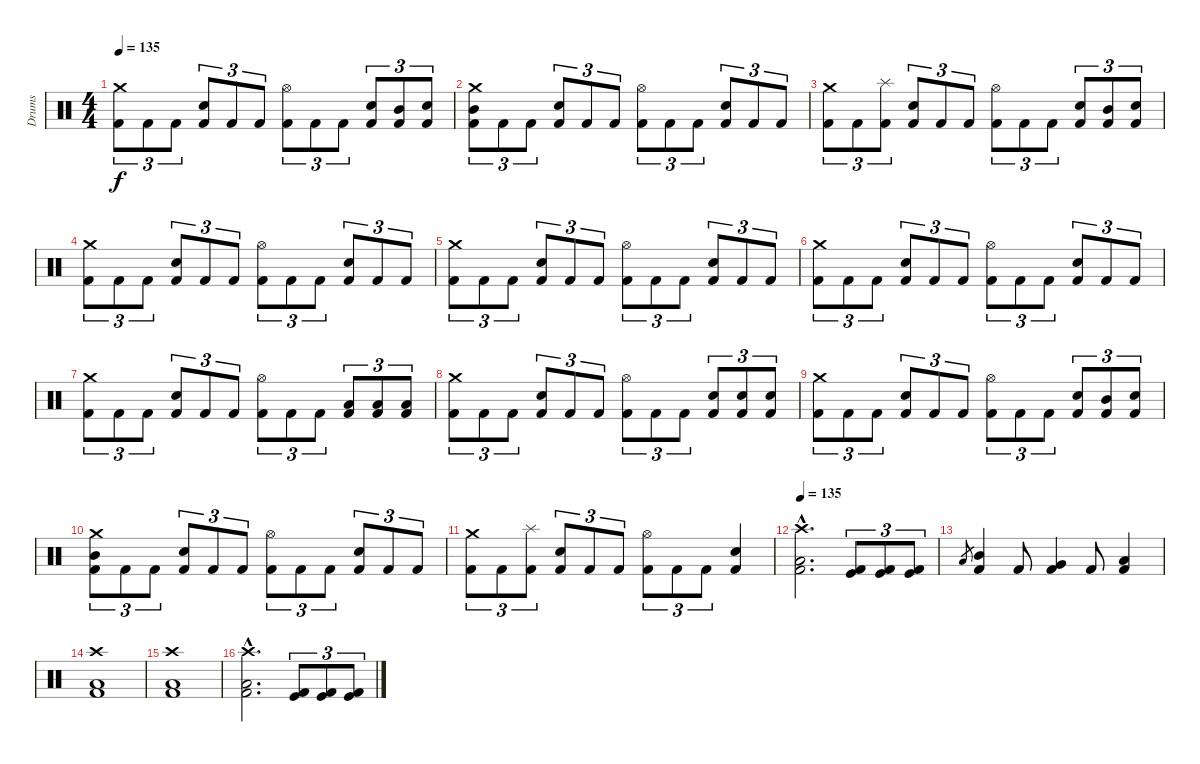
\track ("Drums" "Drums") {instrument percussion}
\staff {score}
\articulation defaults
\ts (4 4)
\tempo 135
\clef neutral
\ks c
("Crash medium (hit)" "Kick (hit) 2").8{tu (3 2) dy f} "Kick (hit) 2".8{tu (3 2)} "Kick (hit) 2".8{tu (3 2)} ("Snare (hit) 2" "Kick (hit) 2").8{tu (3 2)} "Kick (hit) 2".8{tu (3 2)} "Kick (hit) 2".8{tu (3 2)} ("Hi-Hat (open)" "Kick (hit) 2").8{tu (3 2)} "Kick (hit) 2".8{tu (3 2)} "Kick (hit) 2".8{tu (3 2)} ("Snare (hit) 2" "Kick (hit) 2").8{tu (3 2)} ("Mid Tom (hit)" "Kick (hit) 2").8{tu (3 2)} ("Snare (hit) 2" "Kick (hit) 2").8{tu (3 2)} |
("Crash medium (hit)" "Mid Tom (hit)" "Kick (hit) 2").8{tu (3 2)} "Kick (hit) 2".8{tu (3 2)} "Kick (hit) 2".8{tu (3 2)} ("Snare (hit) 2" "Kick (hit) 2").8{tu (3 2)} "Kick (hit) 2".8{tu (3 2)} "Kick (hit) 2".8{tu (3 2)} ("Hi-Hat (open)" "Kick (hit) 2").8{tu (3 2)} "Kick (hit) 2".8{tu (3 2)} "Kick (hit) 2".8{tu (3 2)} ("Snare (hit) 2" "Kick (hit) 2").8{tu (3 2)} "Kick (hit) 2".8{tu (3 2)} "Kick (hit) 2".8{tu (3 2)} |
("Crash medium (hit)" "Kick (hit) 2").8{tu (3 2)} "Kick (hit) 2".8{tu (3 2)} ("Splash (hit)" "Kick (hit) 2").8{tu (3 2)} ("Snare (hit) 2" "Kick (hit) 2").8{tu (3 2)} "Kick (hit) 2".8{tu (3 2)} "Kick (hit) 2".8{tu (3 2)} ("Hi-Hat (open)" "Kick (hit) 2").8{tu (3 2)} "Kick (hit) 2".8{tu (3 2)} "Kick (hit) 2".8{tu (3 2)} ("Snare (hit) 2" "Kick (hit) 2").8{tu (3 2)} ("Mid Tom (hit)" "Kick (hit) 2").8{tu (3 2)} ("Snare (hit) 2" "Kick (hit) 2").8{tu (3 2)} |
("Crash medium (hit)" "Kick (hit) 2").8{tu (3 2)} "Kick (hit) 2".8{tu (3 2)} "Kick (hit) 2".8{tu (3 2)} ("Snare (hit) 2" "Kick (hit) 2").8{tu (3 2)} "Kick (hit) 2".8{tu (3 2)} "Kick (hit) 2".8{tu (3 2)} ("Hi-Hat (open)" "Kick (hit) 2").8{tu (3 2)} "Kick (hit) 2".8{tu (3 2)} "Kick (hit) 2".8{tu (3 2)} ("Snare (hit) 2" "Kick (hit) 2").8{tu (3 2)} "Kick (hit) 2".8{tu (3 2)} "Kick (hit) 2".8{tu (3 2)} |
("Crash medium (hit)" "Kick (hit) 2").8{tu (3 2)} "Kick (hit) 2".8{tu (3 2)} "Kick (hit) 2".8{tu (3 2)} ("Snare (hit) 2" "Kick (hit) 2").8{tu (3 2)} "Kick (hit) 2".8{tu (3 2)} "Kick (hit) 2".8{tu (3 2)} ("Hi-Hat (open)" "Kick (hit) 2").8{tu (3 2)} "Kick (hit) 2".8{tu (3 2)} "Kick (hit) 2".8{tu (3 2)} ("Snare (hit) 2" "Kick (hit) 2").8{tu (3 2)} "Kick (hit) 2".8{tu (3 2)} "Kick (hit) 2".8{tu (3 2)} |
("Crash medium (hit)" "Kick (hit) 2").8{tu (3 2)} "Kick (hit) 2".8{tu (3 2)} "Kick (hit) 2".8{tu (3 2)} ("Snare (hit) 2" "Kick (hit) 2").8{tu (3 2)} "Kick (hit) 2".8{tu (3 2)} "Kick (hit) 2".8{tu (3 2)} ("Hi-Hat (open)" "Kick (hit) 2").8{tu (3 2)} "Kick (hit) 2".8{tu (3 2)} "Kick (hit) 2".8{tu (3 2)} ("Snare (hit) 2" "Kick (hit) 2").8{tu (3 2)} "Kick (hit) 2".8{tu (3 2)} "Kick (hit) 2".8{tu (3 2)} |
("Crash medium (hit)" "Kick (hit) 2").8{tu (3 2)} "Kick (hit) 2".8{tu (3 2)} "Kick (hit) 2".8{tu (3 2)} ("Snare (hit) 2" "Kick (hit) 2").8{tu (3 2)} "Kick (hit) 2".8{tu (3 2)} "Kick (hit) 2".8{tu (3 2)} ("Hi-Hat (open)" "Kick (hit) 2").8{tu (3 2)} "Kick (hit) 2".8{tu (3 2)} "Kick (hit) 2".8{tu (3 2)} ("Low Floor Tom (hit)" "Kick (hit) 2").8{tu (3 2)} ("Low Floor Tom (hit)" "Kick (hit) 2").8{tu (3 2)} ("Low Floor Tom (hit)" "Kick (hit) 2").8{tu (3 2)} |
("Crash medium (hit)" "Kick (hit) 2").8{tu (3 2)} "Kick (hit) 2".8{tu (3 2)} "Kick (hit) 2".8{tu (3 2)} ("Snare (hit) 2" "Kick (hit) 2").8{tu (3 2)} "Kick (hit) 2".8{tu (3 2)} "Kick (hit) 2".8{tu (3 2)} ("Hi-Hat (open)" "Kick (hit) 2").8{tu (3 2)} "Kick (hit) 2".8{tu (3 2)} "Kick (hit) 2".8{tu (3 2)} ("Snare (hit) 2" "Kick (hit) 2").8{tu (3 2)} ("Snare (hit) 2" "Kick (hit) 2").8{tu (3 2)} ("Snare (hit) 2" "Kick (hit) 2").8{tu (3 2)} |
("Crash medium (hit)" "Kick (hit) 2").8{tu (3 2)} "Kick (hit) 2".8{tu (3 2)} "Kick (hit) 2".8{tu (3 2)} ("Snare (hit) 2" "Kick (hit) 2").8{tu (3 2)} "Kick (hit) 2".8{tu (3 2)} "Kick (hit) 2".8{tu (3 2)} ("Hi-Hat (open)" "Kick (hit) 2").8{tu (3 2)} "Kick (hit) 2".8{tu (3 2)} "Kick (hit) 2".8{tu (3 2)} ("Snare (hit) 2" "Kick (hit) 2").8{tu (3 2)} ("Mid Tom (hit)" "Kick (hit) 2").8{tu (3 2)} ("Snare (hit) 2" "Kick (hit) 2").8{tu (3 2)} |
("Crash medium (hit)" "Mid Tom (hit)" "Kick (hit) 2").8{tu (3 2)} "Kick (hit) 2".8{tu (3 2)} "Kick (hit) 2".8{tu (3 2)} ("Snare (hit) 2" "Kick (hit) 2").8{tu (3 2)} "Kick (hit) 2".8{tu (3 2)} "Kick (hit) 2".8{tu (3 2)} ("Hi-Hat (open)" "Kick (hit) 2").8{tu (3 2)} "Kick (hit) 2".8{tu (3 2)} "Kick (hit) 2".8{tu (3 2)} ("Snare (hit) 2" "Kick (hit) 2").8{tu (3 2)} "Kick (hit) 2".8{tu (3 2)} "Kick (hit) 2".8{tu (3 2)} |
("Crash medium (hit)" "Kick (hit) 2").8{tu (3 2)} "Kick (hit) 2".8{tu (3 2)} ("Splash (hit)" "Kick (hit) 2").8{tu (3 2)} ("Snare (hit) 2" "Kick (hit) 2").8{tu (3 2)} "Kick (hit) 2".8{tu (3 2)} "Kick (hit) 2".8{tu (3 2)} ("Hi-Hat (open)" "Kick (hit) 2").8{tu (3 2)} "Kick (hit) 2".8{tu (3 2)} "Kick (hit) 2".8{tu (3 2)} ("Snare (hit) 2" "Kick (hit) 2").4 |
\tempo 135
("Crash high (hit)"{hac} "Low Floor Tom (hit)"{hac} "Kick (hit) 2"{hac}).2{d volume 16} ("Kick (hit)" "Kick (hit) 2").8{tu (3 2)} ("Kick (hit)" "Kick (hit) 2").8{tu (3 2)} ("Kick (hit)" "Kick (hit) 2").8{tu (3 2)} |
"Low Tom (hit)".8{gr} ("Mid Tom (hit)" "Kick (hit) 2").4 "Kick (hit) 2".8 ("Very Low Tom (hit)" "Kick (hit) 2").4 "Kick (hit) 2".8 ("Low Floor Tom (hit)" "Kick (hit) 2").4 |
("Crash high (hit)" "Low Floor Tom (hit)" "Kick (hit) 2").1 |
("Crash high (hit)" "Low Floor Tom (hit)" "Kick (hit) 2").1 |
("Crash high (hit)"{hac} "Low Floor Tom (hit)"{hac} "Kick (hit) 2"{hac}).2{d volume 16} ("Kick (hit)" "Kick (hit) 2").8{tu (3 2)} ("Kick (hit)" "Kick (hit) 2").8{tu (3 2)} ("Kick (hit)" "Kick (hit) 2").8{tu (3 2)}
